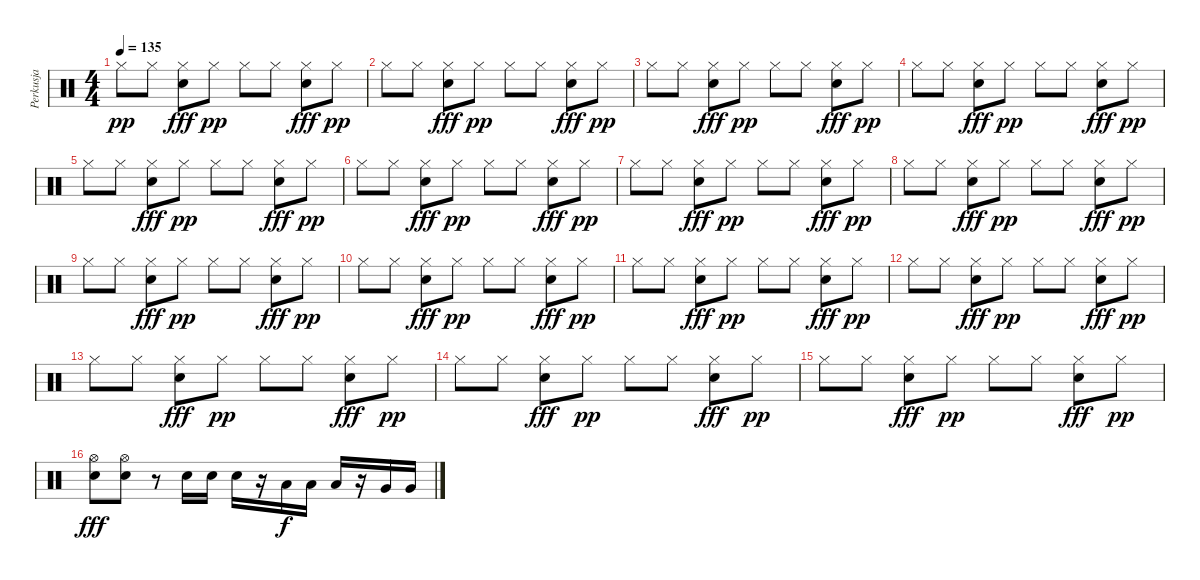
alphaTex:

\track ("Perkusja" "Perkusja") {instrument percussion}
\staff {score}
\articulation defaults
\ts (4 4)
\tempo 135
\clef neutral
\ks c "Hi-Hat (closed)".8{dy pp} "Hi-Hat (closed)".8
("Hi-Hat (closed)" "Electric Snare (hit)").8{dy fff} "Hi-Hat (closed)".8{dy pp} "Hi-Hat (closed)".8 "Hi-Hat (closed)".8 ("Hi-Hat (closed)" "Electric Snare (hit)").8{dy fff} "Hi-Hat (closed)".8{dy pp} |
"Hi-Hat (closed)".8 "Hi-Hat (closed)".8 ("Hi-Hat (closed)" "Electric Snare (hit)").8{dy fff} "Hi-Hat (closed)".8{dy pp} "Hi-Hat (closed)".8 "Hi-Hat (closed)".8 ("Hi-Hat (closed)" "Electric Snare (hit)").8{dy fff} "Hi-Hat (closed)".8{dy pp} |
"Hi-Hat (closed)".8 "Hi-Hat (closed)".8 ("Hi-Hat (closed)" "Electric Snare (hit)").8{dy fff} "Hi-Hat (closed)".8{dy pp} "Hi-Hat (closed)".8 "Hi-Hat (closed)".8 ("Hi-Hat (closed)" "Electric Snare (hit)").8{dy fff} "Hi-Hat (closed)".8{dy pp} |
"Hi-Hat (closed)".8 "Hi-Hat (closed)".8 ("Hi-Hat (closed)" "Electric Snare (hit)").8{dy fff} "Hi-Hat (closed)".8{dy pp} "Hi-Hat (closed)".8 "Hi-Hat (closed)".8 ("Hi-Hat (closed)" "Electric Snare (hit)").8{dy fff} "Hi-Hat (closed)".8{dy pp} |
"Hi-Hat (closed)".8 "Hi-Hat (closed)".8 ("Hi-Hat (closed)" "Electric Snare (hit)").8{dy fff} "Hi-Hat (closed)".8{dy pp} "Hi-Hat (closed)".8 "Hi-Hat (closed)".8 ("Hi-Hat (closed)" "Electric Snare (hit)").8{dy fff} "Hi-Hat (closed)".8{dy pp} |
"Hi-Hat (closed)".8 "Hi-Hat (closed)".8 ("Hi-Hat (closed)" "Electric Snare (hit)").8{dy fff} "Hi-Hat (closed)".8{dy pp} "Hi-Hat (closed)".8 "Hi-Hat (closed)".8 ("Hi-Hat (closed)" "Electric Snare (hit)").8{dy fff} "Hi-Hat (closed)".8{dy pp} |
"Hi-Hat (closed)".8 "Hi-Hat (closed)".8 ("Hi-Hat (closed)" "Electric Snare (hit)").8{dy fff} "Hi-Hat (closed)".8{dy pp} "Hi-Hat (closed)".8 "Hi-Hat (closed)".8 ("Hi-Hat (closed)" "Electric Snare (hit)").8{dy fff} "Hi-Hat (closed)".8{dy pp} |
"Hi-Hat (closed)".8 "Hi-Hat (closed)".8 ("Hi-Hat (closed)" "Electric Snare (hit)").8{dy fff} "Hi-Hat (closed)".8{dy pp} "Hi-Hat (closed)".8 "Hi-Hat (closed)".8 ("Hi-Hat (closed)" "Electric Snare (hit)").8{dy fff} "Hi-Hat (closed)".8{dy pp} |
"Hi-Hat (closed)".8 "Hi-Hat (closed)".8 ("Hi-Hat (closed)" "Electric Snare (hit)").8{dy fff} "Hi-Hat (closed)".8{dy pp} "Hi-Hat (closed)".8 "Hi-Hat (closed)".8 ("Hi-Hat (closed)" "Electric Snare (hit)").8{dy fff} "Hi-Hat (closed)".8{dy pp} |
"Hi-Hat (closed)".8 "Hi-Hat (closed)".8 ("Hi-Hat (closed)" "Electric Snare (hit)").8{dy fff} "Hi-Hat (closed)".8{dy pp} "Hi-Hat (closed)".8 "Hi-Hat (closed)".8 ("Hi-Hat (closed)" "Electric Snare (hit)").8{dy fff} "Hi-Hat (closed)".8{dy pp} |
"Hi-Hat (closed)".8 "Hi-Hat (closed)".8 ("Hi-Hat (closed)" "Electric Snare (hit)").8{dy fff} "Hi-Hat (closed)".8{dy pp} "Hi-Hat (closed)".8 "Hi-Hat (closed)".8 ("Hi-Hat (closed)" "Electric Snare (hit)").8{dy fff} "Hi-Hat (closed)".8{dy pp} |
"Hi-Hat (closed)".8 "Hi-Hat (closed)".8 ("Hi-Hat (closed)" "Electric Snare (hit)").8{dy fff} "Hi-Hat (closed)".8{dy pp} "Hi-Hat (closed)".8 "Hi-Hat (closed)".8 ("Hi-Hat (closed)" "Electric Snare (hit)").8{dy fff} "Hi-Hat (closed)".8{dy pp} |
"Hi-Hat (closed)".8 "Hi-Hat (closed)".8 ("Hi-Hat (closed)" "Electric Snare (hit)").8{dy fff} "Hi-Hat (closed)".8{dy pp} "Hi-Hat (closed)".8 "Hi-Hat (closed)".8 ("Hi-Hat (closed)" "Electric Snare (hit)").8{dy fff} "Hi-Hat (closed)".8{dy pp} |
"Hi-Hat (closed)".8 "Hi-Hat (closed)".8 ("Hi-Hat (closed)" "Electric Snare (hit)").8{dy fff} "Hi-Hat (closed)".8{dy pp} "Hi-Hat (closed)".8 "Hi-Hat (closed)".8 ("Hi-Hat (closed)" "Electric Snare (hit)").8{dy fff} "Hi-Hat (closed)".8{dy pp} |
"Hi-Hat (closed)".8 "Hi-Hat (closed)".8 ("Hi-Hat (closed)" "Electric Snare (hit)").8{dy fff} "Hi-Hat (closed)".8{dy pp} "Hi-Hat (closed)".8 "Hi-Hat (closed)".8 ("Hi-Hat (closed)" "Electric Snare (hit)").8{dy fff} "Hi-Hat (closed)".8{dy pp} |
("Electric Snare (hit)" "Hi-Hat (open)").8{dy fff} ("Electric Snare (hit)" "Hi-Hat (open)").8 r.8 "Electric Snare (hit)".16 "Electric Snare (hit)".16 "Electric Snare (hit)".16 r.16 "Low Tom (hit)".16{dy f} "Low Tom (hit)".16 "Low Tom (hit)".16 r.16 "Very Low Tom (hit)".16 "Very Low Tom (hit)".16
